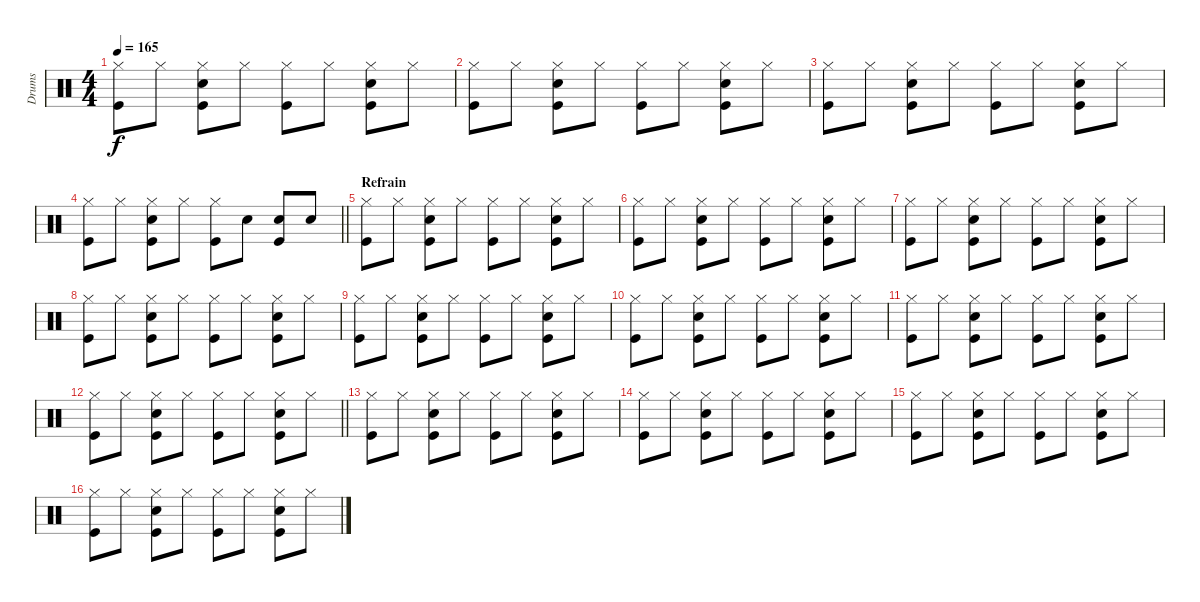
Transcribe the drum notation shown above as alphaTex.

\track ("Drums" "Drums") {instrument percussion}
\staff {score}
\articulation defaults
\ts (4 4)
\tempo 165
\clef neutral
\ks c
("Hi-Hat (closed)" "Kick (hit)").8{dy f} "Hi-Hat (closed)".8 ("Hi-Hat (closed)" "Kick (hit)" "Snare (hit) 2").8 "Hi-Hat (closed)".8 ("Hi-Hat (closed)" "Kick (hit)").8 "Hi-Hat (closed)".8 ("Hi-Hat (closed)" "Kick (hit)" "Snare (hit) 2").8 "Hi-Hat (closed)".8 |
("Hi-Hat (closed)" "Kick (hit)").8 "Hi-Hat (closed)".8 ("Hi-Hat (closed)" "Kick (hit)" "Snare (hit) 2").8 "Hi-Hat (closed)".8 ("Hi-Hat (closed)" "Kick (hit)").8 "Hi-Hat (closed)".8 ("Hi-Hat (closed)" "Kick (hit)" "Snare (hit) 2").8 "Hi-Hat (closed)".8 |
("Hi-Hat (closed)" "Kick (hit)").8 "Hi-Hat (closed)".8 ("Hi-Hat (closed)" "Kick (hit)" "Snare (hit) 2").8 "Hi-Hat (closed)".8 ("Hi-Hat (closed)" "Kick (hit)").8 "Hi-Hat (closed)".8 ("Hi-Hat (closed)" "Kick (hit)" "Snare (hit) 2").8 "Hi-Hat (closed)".8 |
\barLineRight lightlight
("Hi-Hat (closed)" "Kick (hit)").8 "Hi-Hat (closed)".8 ("Hi-Hat (closed)" "Kick (hit)" "Snare (hit) 2").8 "Hi-Hat (closed)".8 ("Hi-Hat (closed)" "Kick (hit)").8 "Snare (hit) 2".8 ("Kick (hit)" "Snare (hit) 2").8 "Snare (hit) 2".8 |
\section ("" "Refrain")
("Hi-Hat (closed)" "Kick (hit)").8 "Hi-Hat (closed)".8 ("Hi-Hat (closed)" "Kick (hit)" "Snare (hit) 2").8 "Hi-Hat (closed)".8 ("Hi-Hat (closed)" "Kick (hit)").8 "Hi-Hat (closed)".8 ("Hi-Hat (closed)" "Kick (hit)" "Snare (hit) 2").8 "Hi-Hat (closed)".8 |
("Hi-Hat (closed)" "Kick (hit)").8 "Hi-Hat (closed)".8 ("Hi-Hat (closed)" "Kick (hit)" "Snare (hit) 2").8 "Hi-Hat (closed)".8 ("Hi-Hat (closed)" "Kick (hit)").8 "Hi-Hat (closed)".8 ("Hi-Hat (closed)" "Kick (hit)" "Snare (hit) 2").8 "Hi-Hat (closed)".8 |
("Hi-Hat (closed)" "Kick (hit)").8 "Hi-Hat (closed)".8 ("Hi-Hat (closed)" "Kick (hit)" "Snare (hit) 2").8 "Hi-Hat (closed)".8 ("Hi-Hat (closed)" "Kick (hit)").8 "Hi-Hat (closed)".8 ("Hi-Hat (closed)" "Kick (hit)" "Snare (hit) 2").8 "Hi-Hat (closed)".8 |
("Hi-Hat (closed)" "Kick (hit)").8 "Hi-Hat (closed)".8 ("Hi-Hat (closed)" "Kick (hit)" "Snare (hit) 2").8 "Hi-Hat (closed)".8 ("Hi-Hat (closed)" "Kick (hit)").8 "Hi-Hat (closed)".8 ("Hi-Hat (closed)" "Kick (hit)" "Snare (hit) 2").8 "Hi-Hat (closed)".8 |
("Hi-Hat (closed)" "Kick (hit)").8 "Hi-Hat (closed)".8 ("Hi-Hat (closed)" "Kick (hit)" "Snare (hit) 2").8 "Hi-Hat (closed)".8 ("Hi-Hat (closed)" "Kick (hit)").8 "Hi-Hat (closed)".8 ("Hi-Hat (closed)" "Kick (hit)" "Snare (hit) 2").8 "Hi-Hat (closed)".8 |
("Hi-Hat (closed)" "Kick (hit)").8 "Hi-Hat (closed)".8 ("Hi-Hat (closed)" "Kick (hit)" "Snare (hit) 2").8 "Hi-Hat (closed)".8 ("Hi-Hat (closed)" "Kick (hit)").8 "Hi-Hat (closed)".8 ("Hi-Hat (closed)" "Kick (hit)" "Snare (hit) 2").8 "Hi-Hat (closed)".8 |
("Hi-Hat (closed)" "Kick (hit)").8 "Hi-Hat (closed)".8 ("Hi-Hat (closed)" "Kick (hit)" "Snare (hit) 2").8 "Hi-Hat (closed)".8 ("Hi-Hat (closed)" "Kick (hit)").8 "Hi-Hat (closed)".8 ("Hi-Hat (closed)" "Kick (hit)" "Snare (hit) 2").8 "Hi-Hat (closed)".8 |
\barLineRight lightlight
("Hi-Hat (closed)" "Kick (hit)").8 "Hi-Hat (closed)".8 ("Hi-Hat (closed)" "Kick (hit)" "Snare (hit) 2").8 "Hi-Hat (closed)".8 ("Hi-Hat (closed)" "Kick (hit)").8 "Hi-Hat (closed)".8 ("Hi-Hat (closed)" "Kick (hit)" "Snare (hit) 2").8 "Hi-Hat (closed)".8 |
("Hi-Hat (closed)" "Kick (hit)").8 "Hi-Hat (closed)".8 ("Hi-Hat (closed)" "Kick (hit)" "Snare (hit) 2").8 "Hi-Hat (closed)".8 ("Hi-Hat (closed)" "Kick (hit)").8 "Hi-Hat (closed)".8 ("Hi-Hat (closed)" "Kick (hit)" "Snare (hit) 2").8 "Hi-Hat (closed)".8 |
("Hi-Hat (closed)" "Kick (hit)").8 "Hi-Hat (closed)".8 ("Hi-Hat (closed)" "Kick (hit)" "Snare (hit) 2").8 "Hi-Hat (closed)".8 ("Hi-Hat (closed)" "Kick (hit)").8 "Hi-Hat (closed)".8 ("Hi-Hat (closed)" "Kick (hit)" "Snare (hit) 2").8 "Hi-Hat (closed)".8 |
("Hi-Hat (closed)" "Kick (hit)").8 "Hi-Hat (closed)".8 ("Hi-Hat (closed)" "Kick (hit)" "Snare (hit) 2").8 "Hi-Hat (closed)".8 ("Hi-Hat (closed)" "Kick (hit)").8 "Hi-Hat (closed)".8 ("Hi-Hat (closed)" "Kick (hit)" "Snare (hit) 2").8 "Hi-Hat (closed)".8 |
("Hi-Hat (closed)" "Kick (hit)").8 "Hi-Hat (closed)".8 ("Hi-Hat (closed)" "Kick (hit)" "Snare (hit) 2").8 "Hi-Hat (closed)".8 ("Hi-Hat (closed)" "Kick (hit)").8 "Hi-Hat (closed)".8 ("Hi-Hat (closed)" "Kick (hit)" "Snare (hit) 2").8 "Hi-Hat (closed)".8
